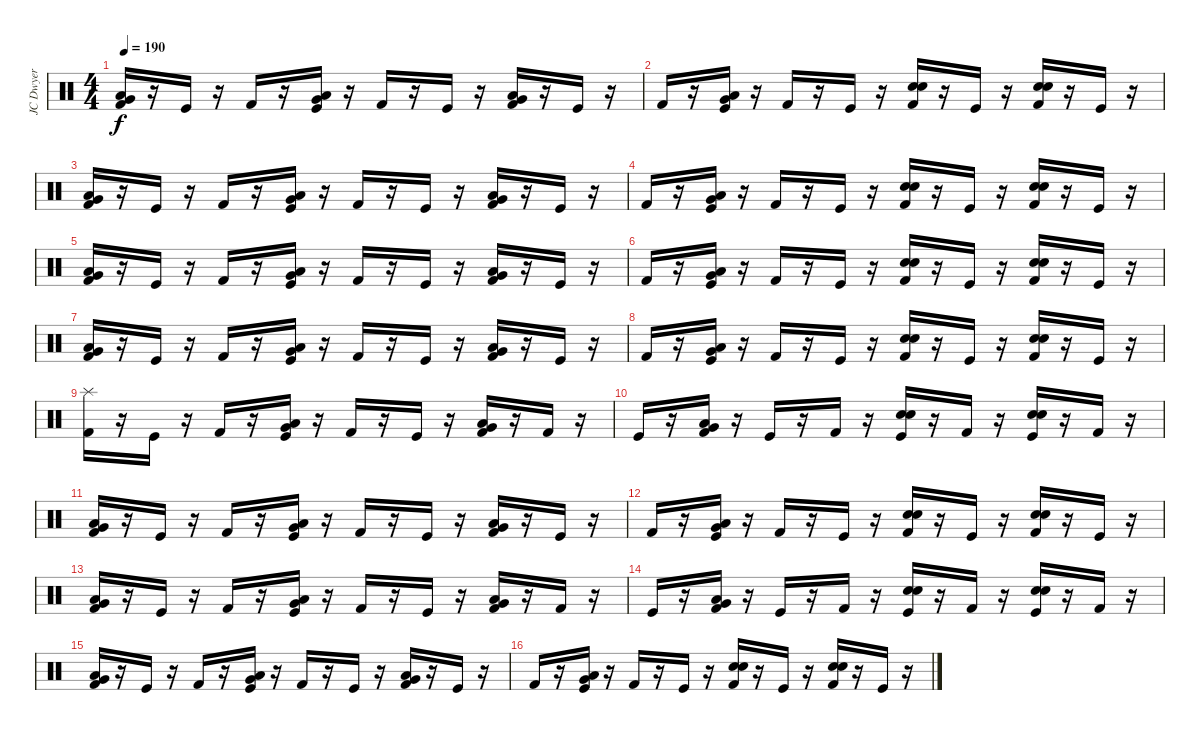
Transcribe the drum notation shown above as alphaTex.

\track ("JC Dwyer" "JC Dwyer") {instrument percussion}
\staff {score}
\articulation defaults
\ts (4 4)
\tempo 190
\clef neutral
\ks c
("Very Low Tom (hit)" "Low Floor Tom (hit)" "Kick (hit) 2").16{dy f} r.16 "Kick (hit)".16 r.16 "Kick (hit) 2".16 r.16 ("Very Low Tom (hit)" "Low Floor Tom (hit)" "Kick (hit)").16 r.16 "Kick (hit) 2".16 r.16 "Kick (hit)".16 r.16 ("Very Low Tom (hit)" "Low Floor Tom (hit)" "Kick (hit) 2").16 r.16 "Kick (hit)".16 r.16 |
"Kick (hit) 2".16 r.16 ("Very Low Tom (hit)" "Low Floor Tom (hit)" "Kick (hit)").16 r.16 "Kick (hit) 2".16 r.16 "Kick (hit)".16 r.16 ("Electric Snare (hit)" "Electric Snare (hit)" "Kick (hit) 2").16 r.16 "Kick (hit)".16 r.16 ("Electric Snare (hit)" "Electric Snare (hit)" "Kick (hit) 2").16 r.16 "Kick (hit)".16 r.16 |
("Very Low Tom (hit)" "Low Floor Tom (hit)" "Kick (hit) 2").16 r.16 "Kick (hit)".16 r.16 "Kick (hit) 2".16 r.16 ("Very Low Tom (hit)" "Low Floor Tom (hit)" "Kick (hit)").16 r.16 "Kick (hit) 2".16 r.16 "Kick (hit)".16 r.16 ("Very Low Tom (hit)" "Low Floor Tom (hit)" "Kick (hit) 2").16 r.16 "Kick (hit)".16 r.16 |
"Kick (hit) 2".16 r.16 ("Very Low Tom (hit)" "Low Floor Tom (hit)" "Kick (hit)").16 r.16 "Kick (hit) 2".16 r.16 "Kick (hit)".16 r.16 ("Electric Snare (hit)" "Electric Snare (hit)" "Kick (hit) 2").16 r.16 "Kick (hit)".16 r.16 ("Electric Snare (hit)" "Electric Snare (hit)" "Kick (hit) 2").16 r.16 "Kick (hit)".16 r.16 |
("Very Low Tom (hit)" "Low Floor Tom (hit)" "Kick (hit) 2").16 r.16 "Kick (hit)".16 r.16 "Kick (hit) 2".16 r.16 ("Very Low Tom (hit)" "Low Floor Tom (hit)" "Kick (hit)").16 r.16 "Kick (hit) 2".16 r.16 "Kick (hit)".16 r.16 ("Very Low Tom (hit)" "Low Floor Tom (hit)" "Kick (hit) 2").16 r.16 "Kick (hit)".16 r.16 |
"Kick (hit) 2".16 r.16 ("Very Low Tom (hit)" "Low Floor Tom (hit)" "Kick (hit)").16 r.16 "Kick (hit) 2".16 r.16 "Kick (hit)".16 r.16 ("Electric Snare (hit)" "Electric Snare (hit)" "Kick (hit) 2").16 r.16 "Kick (hit)".16 r.16 ("Electric Snare (hit)" "Electric Snare (hit)" "Kick (hit) 2").16 r.16 "Kick (hit)".16 r.16 |
("Very Low Tom (hit)" "Low Floor Tom (hit)" "Kick (hit) 2").16 r.16 "Kick (hit)".16 r.16 "Kick (hit) 2".16 r.16 ("Very Low Tom (hit)" "Low Floor Tom (hit)" "Kick (hit)").16 r.16 "Kick (hit) 2".16 r.16 "Kick (hit)".16 r.16 ("Very Low Tom (hit)" "Low Floor Tom (hit)" "Kick (hit) 2").16 r.16 "Kick (hit)".16 r.16 |
"Kick (hit) 2".16 r.16 ("Very Low Tom (hit)" "Low Floor Tom (hit)" "Kick (hit)").16 r.16 "Kick (hit) 2".16 r.16 "Kick (hit)".16 r.16 ("Electric Snare (hit)" "Electric Snare (hit)" "Kick (hit) 2").16 r.16 "Kick (hit)".16 r.16 ("Electric Snare (hit)" "Electric Snare (hit)" "Kick (hit) 2").16 r.16 "Kick (hit)".16 r.16 |
("Splash (hit)" "Kick (hit) 2").16 r.16 "Kick (hit)".16 r.16 "Kick (hit) 2".16 r.16 ("Very Low Tom (hit)" "Low Floor Tom (hit)" "Kick (hit)").16 r.16 "Kick (hit) 2".16 r.16 "Kick (hit)".16 r.16 ("Very Low Tom (hit)" "Low Floor Tom (hit)" "Kick (hit) 2").16 r.16 "Kick (hit) 2".16 r.16 |
"Kick (hit)".16 r.16 ("Very Low Tom (hit)" "Low Floor Tom (hit)" "Kick (hit) 2").16 r.16 "Kick (hit)".16 r.16 "Kick (hit) 2".16 r.16 ("Electric Snare (hit)" "Electric Snare (hit)" "Kick (hit)").16 r.16 "Kick (hit) 2".16 r.16 ("Electric Snare (hit)" "Electric Snare (hit)" "Kick (hit)").16 r.16 "Kick (hit) 2".16 r.16 |
("Very Low Tom (hit)" "Low Floor Tom (hit)" "Kick (hit) 2").16 r.16 "Kick (hit)".16 r.16 "Kick (hit) 2".16 r.16 ("Very Low Tom (hit)" "Low Floor Tom (hit)" "Kick (hit)").16 r.16 "Kick (hit) 2".16 r.16 "Kick (hit)".16 r.16 ("Very Low Tom (hit)" "Low Floor Tom (hit)" "Kick (hit) 2").16 r.16 "Kick (hit)".16 r.16 |
"Kick (hit) 2".16 r.16 ("Very Low Tom (hit)" "Low Floor Tom (hit)" "Kick (hit)").16 r.16 "Kick (hit) 2".16 r.16 "Kick (hit)".16 r.16 ("Electric Snare (hit)" "Electric Snare (hit)" "Kick (hit) 2").16 r.16 "Kick (hit)".16 r.16 ("Electric Snare (hit)" "Electric Snare (hit)" "Kick (hit) 2").16 r.16 "Kick (hit)".16 r.16 |
("Very Low Tom (hit)" "Low Floor Tom (hit)" "Kick (hit) 2").16 r.16 "Kick (hit)".16 r.16 "Kick (hit) 2".16 r.16 ("Very Low Tom (hit)" "Low Floor Tom (hit)" "Kick (hit)").16 r.16 "Kick (hit) 2".16 r.16 "Kick (hit)".16 r.16 ("Very Low Tom (hit)" "Low Floor Tom (hit)" "Kick (hit) 2").16 r.16 "Kick (hit) 2".16 r.16 |
"Kick (hit)".16 r.16 ("Very Low Tom (hit)" "Low Floor Tom (hit)" "Kick (hit) 2").16 r.16 "Kick (hit)".16 r.16 "Kick (hit) 2".16 r.16 ("Electric Snare (hit)" "Electric Snare (hit)" "Kick (hit)").16 r.16 "Kick (hit) 2".16 r.16 ("Electric Snare (hit)" "Electric Snare (hit)" "Kick (hit)").16 r.16 "Kick (hit) 2".16 r.16 |
("Very Low Tom (hit)" "Low Floor Tom (hit)" "Kick (hit) 2").16 r.16 "Kick (hit)".16 r.16 "Kick (hit) 2".16 r.16 ("Very Low Tom (hit)" "Low Floor Tom (hit)" "Kick (hit)").16 r.16 "Kick (hit) 2".16 r.16 "Kick (hit)".16 r.16 ("Very Low Tom (hit)" "Low Floor Tom (hit)" "Kick (hit) 2").16 r.16 "Kick (hit)".16 r.16 |
"Kick (hit) 2".16 r.16 ("Very Low Tom (hit)" "Low Floor Tom (hit)" "Kick (hit)").16 r.16 "Kick (hit) 2".16 r.16 "Kick (hit)".16 r.16 ("Electric Snare (hit)" "Electric Snare (hit)" "Kick (hit) 2").16 r.16 "Kick (hit)".16 r.16 ("Electric Snare (hit)" "Electric Snare (hit)" "Kick (hit) 2").16 r.16 "Kick (hit)".16 r.16
